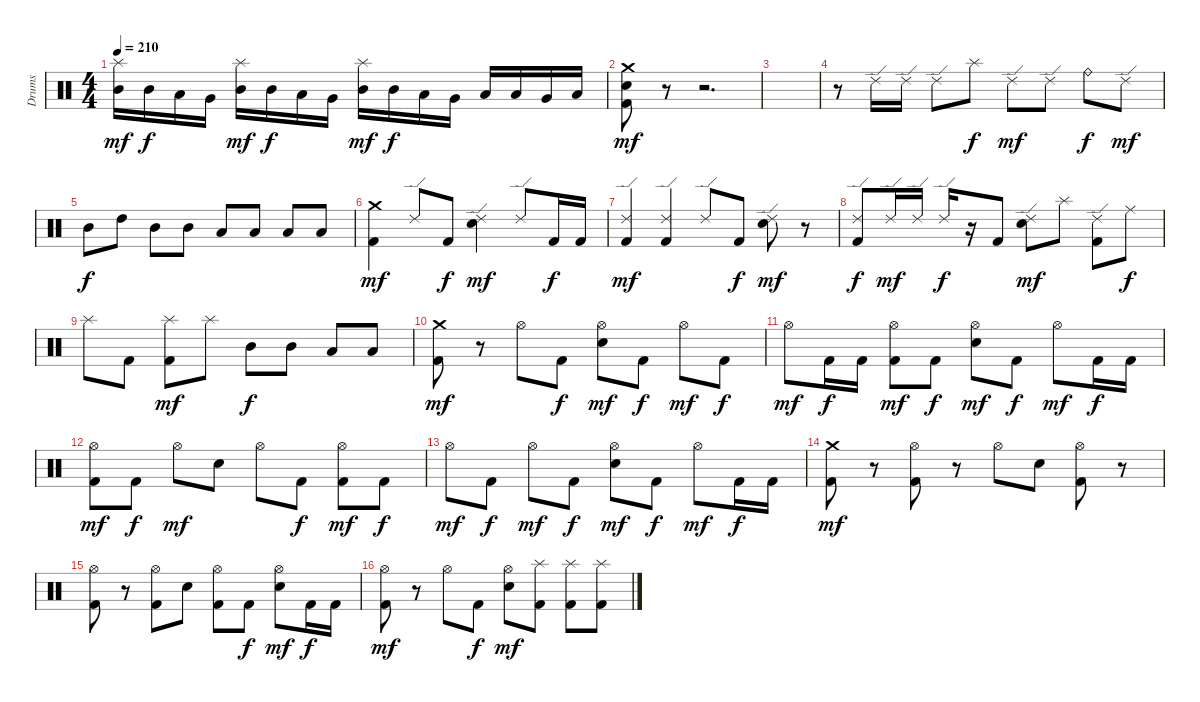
\track ("Drums" "Drums") {instrument percussion}
\staff {score}
\articulation defaults
\ts (4 4)
\tempo 210
\clef neutral
\ks c
("Splash (hit)" "Mid Tom (hit)").16{dy mf} "Mid Tom (hit)".16{dy f} "Low Tom (hit)".16 "Very Low Tom (hit)".16 ("Splash (hit)" "Mid Tom (hit)").16{dy mf} "Mid Tom (hit)".16{dy f} "Low Tom (hit)".16 "Very Low Tom (hit)".16 ("Splash (hit)" "Mid Tom (hit)").16{dy mf} "Mid Tom (hit)".16{dy f} "Low Tom (hit)".16 "Very Low Tom (hit)".16 "Low Tom (hit)".16 "Low Tom (hit)".16 "Very Low Tom (hit)".16 "Low Floor Tom (hit)".16 |
("Crash medium (hit)" "Electric Snare (hit)" "Kick (hit) 2").8{dy mf} r.8 r.2{d} |
|
r.8 "Ride (edge) 2".16 "Ride (edge) 2".16 "Ride (edge) 2".8 "Splash (hit)".8{dy f} "Ride (edge) 2".8{dy mf} "Ride (edge) 2".8 "Ride (bell)".8{dy f} "Ride (edge) 2".8{dy mf} |
"Mid Tom (hit)".8{dy f} "High Tom (hit)".8 "Mid Tom (hit)".8 "Mid Tom (hit)".8 "Low Tom (hit)".8 "Low Tom (hit)".8 "Low Tom (hit)".8 "Low Tom (hit)".8 |
("Crash medium (hit)" "Kick (hit) 2").4{dy mf} "Ride (edge) 2".8 "Kick (hit) 2".8{dy f} ("Ride (edge) 2" "Electric Snare (hit)").4{dy mf} "Ride (edge) 2".8 "Kick (hit) 2".16{dy f} "Kick (hit) 2".16 |
("Ride (edge) 2" "Kick (hit) 2").4{dy mf} ("Ride (edge) 2" "Kick (hit) 2").4 "Ride (edge) 2".8 "Kick (hit) 2".8{dy f} ("Ride (edge) 2" "Electric Snare (hit)").8{dy mf} r.8 |
("Ride (edge) 2" "Kick (hit) 2").8{dy f} "Ride (edge) 2".16{dy mf} "Ride (edge) 2".16 "Ride (edge) 2".16{dy f} r.16 "Kick (hit) 2".8 ("Ride (edge) 2" "Electric Snare (hit)").8{dy mf} "Splash (hit)".8 ("Ride (edge) 2" "Kick (hit) 2").8 "Ride (middle)".8{dy f} |
"Splash (hit)".8 "Kick (hit) 2".8 ("Splash (hit)" "Kick (hit) 2").8{dy mf} "Splash (hit)".8 "Mid Tom (hit)".8{dy f} "Mid Tom (hit)".8 "Low Tom (hit)".8 "Low Tom (hit)".8 |
("Crash medium (hit)" "Kick (hit) 2").8{dy mf} r.8 "Hi-Hat (open)".8 "Kick (hit) 2".8{dy f} ("Hi-Hat (open)" "Electric Snare (hit)").8{dy mf} "Kick (hit) 2".8{dy f} "Hi-Hat (open)".8{dy mf} "Kick (hit) 2".8{dy f} |
"Hi-Hat (open)".8{dy mf} "Kick (hit) 2".16{dy f} "Kick (hit) 2".16 ("Hi-Hat (open)" "Kick (hit) 2").8{dy mf} "Kick (hit) 2".8{dy f} ("Hi-Hat (open)" "Electric Snare (hit)").8{dy mf} "Kick (hit) 2".8{dy f} "Hi-Hat (open)".8{dy mf} "Kick (hit) 2".16{dy f} "Kick (hit) 2".16 |
("Hi-Hat (open)" "Kick (hit) 2").8{dy mf} "Kick (hit) 2".8{dy f} "Hi-Hat (open)".8{dy mf} "Electric Snare (hit)".8 "Hi-Hat (open)".8 "Kick (hit) 2".8{dy f} ("Hi-Hat (open)" "Kick (hit) 2").8{dy mf} "Kick (hit) 2".8{dy f} |
"Hi-Hat (open)".8{dy mf} "Kick (hit) 2".8{dy f} "Hi-Hat (open)".8{dy mf} "Kick (hit) 2".8{dy f} ("Hi-Hat (open)" "Electric Snare (hit)").8{dy mf} "Kick (hit) 2".8{dy f} "Hi-Hat (open)".8{dy mf} "Kick (hit) 2".16{dy f} "Kick (hit) 2".16 |
("Crash medium (hit)" "Kick (hit) 2").8{dy mf} r.8 ("Hi-Hat (open)" "Kick (hit) 2").8 r.8 "Hi-Hat (open)".8 "Electric Snare (hit)".8 ("Hi-Hat (open)" "Kick (hit) 2").8 r.8 |
("Hi-Hat (open)" "Kick (hit) 2").8 r.8 ("Hi-Hat (open)" "Kick (hit) 2").8 "Electric Snare (hit)".8 ("Hi-Hat (open)" "Kick (hit) 2").8 "Kick (hit) 2".8{dy f} ("Hi-Hat (open)" "Electric Snare (hit)").8{dy mf} "Kick (hit) 2".16{dy f} "Kick (hit) 2".16 |
("Hi-Hat (open)" "Kick (hit) 2").8{dy mf} r.8 "Hi-Hat (open)".8 "Kick (hit) 2".8{dy f} ("Hi-Hat (open)" "Electric Snare (hit)").8{dy mf} ("Splash (hit)" "Kick (hit) 2").8 ("Splash (hit)" "Kick (hit) 2").8 ("Splash (hit)" "Kick (hit) 2").8
